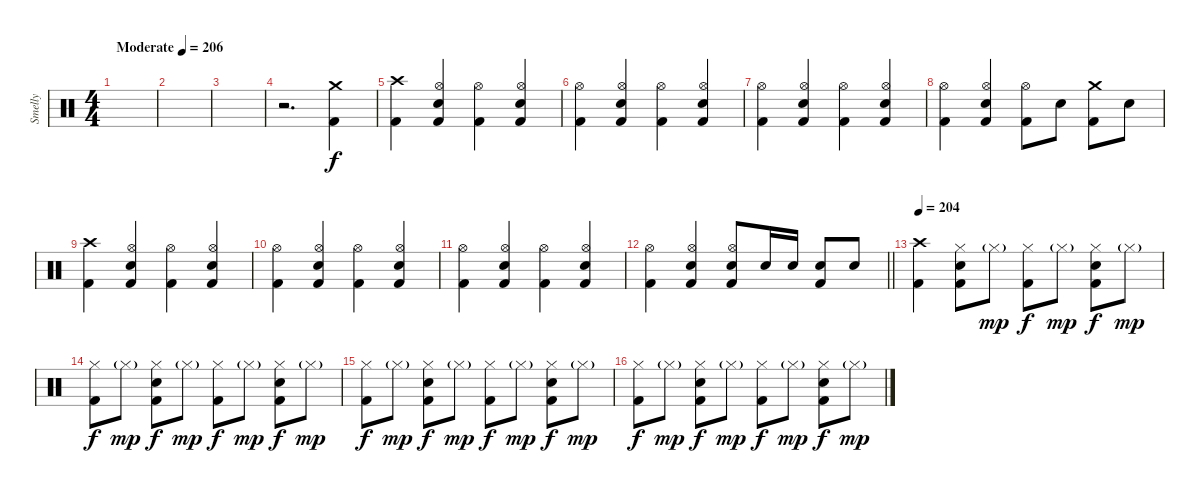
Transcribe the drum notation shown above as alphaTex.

\track ("Smelly" "Smelly") {instrument percussion}
\staff {score}
\articulation defaults
\ts (4 4)
\tempo (206 "Moderate")
\clef neutral
\ks c
|
|
|
r.2{d} ("Crash medium (hit)" "Kick (hit) 2").4 |
("Crash high (hit)" "Kick (hit) 2").4 ("Hi-Hat (open)" "Electric Snare (hit)" "Kick (hit) 2").4 ("Hi-Hat (open)" "Kick (hit) 2").4 ("Hi-Hat (open)" "Electric Snare (hit)" "Kick (hit) 2").4 |
("Hi-Hat (open)" "Kick (hit) 2").4 ("Hi-Hat (open)" "Electric Snare (hit)" "Kick (hit) 2").4 ("Hi-Hat (open)" "Kick (hit) 2").4 ("Hi-Hat (open)" "Electric Snare (hit)" "Kick (hit) 2").4 |
("Hi-Hat (open)" "Kick (hit) 2").4 ("Hi-Hat (open)" "Electric Snare (hit)" "Kick (hit) 2").4 ("Hi-Hat (open)" "Kick (hit) 2").4 ("Hi-Hat (open)" "Electric Snare (hit)" "Kick (hit) 2").4 |
("Hi-Hat (open)" "Kick (hit) 2").4 ("Hi-Hat (open)" "Electric Snare (hit)" "Kick (hit) 2").4 ("Hi-Hat (open)" "Kick (hit) 2").8 "Electric Snare (hit)".8 ("Crash medium (hit)" "Kick (hit) 2").8 "Electric Snare (hit)".8 |
("Crash high (hit)" "Kick (hit) 2").4 ("Hi-Hat (open)" "Electric Snare (hit)" "Kick (hit) 2").4 ("Hi-Hat (open)" "Kick (hit) 2").4 ("Hi-Hat (open)" "Electric Snare (hit)" "Kick (hit) 2").4 |
("Hi-Hat (open)" "Kick (hit) 2").4 ("Hi-Hat (open)" "Electric Snare (hit)" "Kick (hit) 2").4 ("Hi-Hat (open)" "Kick (hit) 2").4 ("Hi-Hat (open)" "Electric Snare (hit)" "Kick (hit) 2").4 |
("Hi-Hat (open)" "Kick (hit) 2").4 ("Hi-Hat (open)" "Electric Snare (hit)" "Kick (hit) 2").4 ("Hi-Hat (open)" "Kick (hit) 2").4 ("Hi-Hat (open)" "Electric Snare (hit)" "Kick (hit) 2").4 |
\barLineRight lightlight
("Hi-Hat (open)" "Kick (hit) 2").4 ("Hi-Hat (open)" "Electric Snare (hit)" "Kick (hit) 2").4 ("Hi-Hat (open)" "Electric Snare (hit)" "Kick (hit) 2").8 "Electric Snare (hit)".16 "Electric Snare (hit)".16 ("Electric Snare (hit)" "Kick (hit) 2").8 "Electric Snare (hit)".8 |
\section ("" "")
\tempo 204
("Crash high (hit)" "Kick (hit) 2").4 ("Hi-Hat (closed)" "Electric Snare (hit)" "Kick (hit) 2").8 "Hi-Hat (closed)"{g}.8{dy mp} ("Hi-Hat (closed)" "Kick (hit) 2").8{dy f} "Hi-Hat (closed)"{g}.8{dy mp} ("Hi-Hat (closed)" "Electric Snare (hit)" "Kick (hit) 2").8{dy f} "Hi-Hat (closed)"{g}.8{dy mp} |
("Hi-Hat (closed)" "Kick (hit) 2").8{dy f} "Hi-Hat (closed)"{g}.8{dy mp} ("Hi-Hat (closed)" "Electric Snare (hit)" "Kick (hit) 2").8{dy f} "Hi-Hat (closed)"{g}.8{dy mp} ("Hi-Hat (closed)" "Kick (hit) 2").8{dy f} "Hi-Hat (closed)"{g}.8{dy mp} ("Hi-Hat (closed)" "Electric Snare (hit)" "Kick (hit) 2").8{dy f} "Hi-Hat (closed)"{g}.8{dy mp} |
("Hi-Hat (closed)" "Kick (hit) 2").8{dy f} "Hi-Hat (closed)"{g}.8{dy mp} ("Hi-Hat (closed)" "Electric Snare (hit)" "Kick (hit) 2").8{dy f} "Hi-Hat (closed)"{g}.8{dy mp} ("Hi-Hat (closed)" "Kick (hit) 2").8{dy f} "Hi-Hat (closed)"{g}.8{dy mp} ("Hi-Hat (closed)" "Electric Snare (hit)" "Kick (hit) 2").8{dy f} "Hi-Hat (closed)"{g}.8{dy mp} |
("Hi-Hat (closed)" "Kick (hit) 2").8{dy f} "Hi-Hat (closed)"{g}.8{dy mp} ("Hi-Hat (closed)" "Electric Snare (hit)" "Kick (hit) 2").8{dy f} "Hi-Hat (closed)"{g}.8{dy mp} ("Hi-Hat (closed)" "Kick (hit) 2").8{dy f} "Hi-Hat (closed)"{g}.8{dy mp} ("Hi-Hat (closed)" "Electric Snare (hit)" "Kick (hit) 2").8{dy f} "Hi-Hat (closed)"{g}.8{dy mp}
